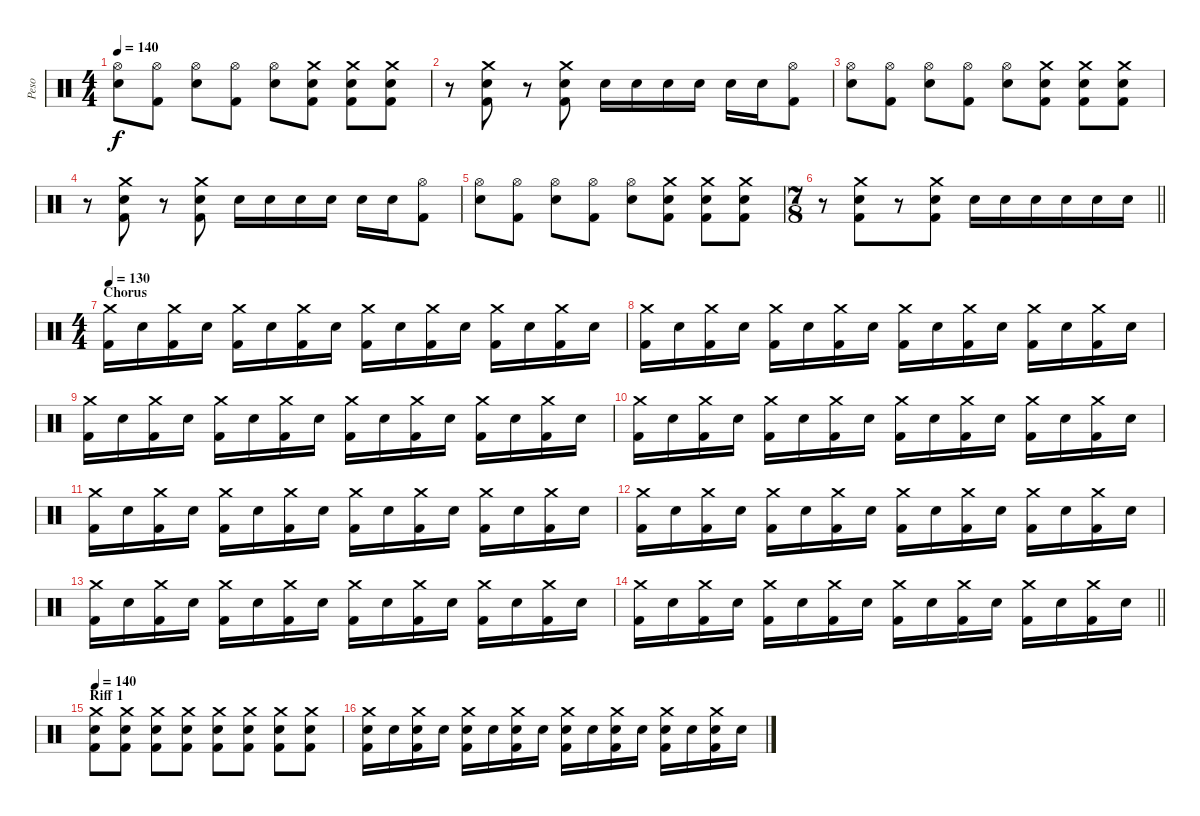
\track ("Peso" "Peso") {instrument percussion}
\staff {score}
\articulation defaults
\ts (4 4)
\tempo 140
\clef neutral
\ks c
("Hi-Hat (open)" "Electric Snare (hit)").8{dy f} ("Hi-Hat (open)" "Kick (hit) 2").8 ("Hi-Hat (open)" "Electric Snare (hit)").8 ("Hi-Hat (open)" "Kick (hit) 2").8 ("Hi-Hat (open)" "Electric Snare (hit)").8 ("Crash medium (hit)" "Electric Snare (hit)" "Kick (hit) 2").8 ("Crash medium (hit)" "Electric Snare (hit)" "Kick (hit) 2").8 ("Crash medium (hit)" "Electric Snare (hit)" "Kick (hit) 2").8 |
r.8 ("Crash medium (hit)" "Electric Snare (hit)" "Kick (hit) 2").8 r.8 ("Crash medium (hit)" "Electric Snare (hit)" "Kick (hit) 2").8 "Electric Snare (hit)".16 "Electric Snare (hit)".16 "Electric Snare (hit)".16 "Electric Snare (hit)".16 "Electric Snare (hit)".16 "Electric Snare (hit)".16 ("Hi-Hat (open)" "Kick (hit) 2").8 |
("Hi-Hat (open)" "Electric Snare (hit)").8 ("Hi-Hat (open)" "Kick (hit) 2").8 ("Hi-Hat (open)" "Electric Snare (hit)").8 ("Hi-Hat (open)" "Kick (hit) 2").8 ("Hi-Hat (open)" "Electric Snare (hit)").8 ("Crash medium (hit)" "Electric Snare (hit)" "Kick (hit) 2").8 ("Crash medium (hit)" "Electric Snare (hit)" "Kick (hit) 2").8 ("Crash medium (hit)" "Electric Snare (hit)" "Kick (hit) 2").8 |
r.8 ("Crash medium (hit)" "Electric Snare (hit)" "Kick (hit) 2").8 r.8 ("Crash medium (hit)" "Electric Snare (hit)" "Kick (hit) 2").8 "Electric Snare (hit)".16 "Electric Snare (hit)".16 "Electric Snare (hit)".16 "Electric Snare (hit)".16 "Electric Snare (hit)".16 "Electric Snare (hit)".16 ("Hi-Hat (open)" "Kick (hit) 2").8 |
("Hi-Hat (open)" "Electric Snare (hit)").8 ("Hi-Hat (open)" "Kick (hit) 2").8 ("Hi-Hat (open)" "Electric Snare (hit)").8 ("Hi-Hat (open)" "Kick (hit) 2").8 ("Hi-Hat (open)" "Electric Snare (hit)").8 ("Crash medium (hit)" "Electric Snare (hit)" "Kick (hit) 2").8 ("Crash medium (hit)" "Electric Snare (hit)" "Kick (hit) 2").8 ("Crash medium (hit)" "Electric Snare (hit)" "Kick (hit) 2").8 |
\ts (7 8)
\barLineRight lightlight
r.8 ("Crash medium (hit)" "Electric Snare (hit)" "Kick (hit) 2").8 r.8 ("Crash medium (hit)" "Electric Snare (hit)" "Kick (hit) 2").8 "Electric Snare (hit)".16 "Electric Snare (hit)".16 "Electric Snare (hit)".16 "Electric Snare (hit)".16 "Electric Snare (hit)".16 "Electric Snare (hit)".16 |
\ts (4 4)
\section ("" "Chorus")
\tempo 130
("Crash medium (hit)" "Kick (hit) 2").16 "Electric Snare (hit)".16 ("Crash medium (hit)" "Kick (hit) 2").16 "Electric Snare (hit)".16 ("Crash medium (hit)" "Kick (hit) 2").16 "Electric Snare (hit)".16 ("Crash medium (hit)" "Kick (hit) 2").16 "Electric Snare (hit)".16 ("Crash medium (hit)" "Kick (hit) 2").16 "Electric Snare (hit)".16 ("Crash medium (hit)" "Kick (hit) 2").16 "Electric Snare (hit)".16 ("Crash medium (hit)" "Kick (hit) 2").16 "Electric Snare (hit)".16 ("Crash medium (hit)" "Kick (hit) 2").16 "Electric Snare (hit)".16 |
("Crash medium (hit)" "Kick (hit) 2").16 "Electric Snare (hit)".16 ("Crash medium (hit)" "Kick (hit) 2").16 "Electric Snare (hit)".16 ("Crash medium (hit)" "Kick (hit) 2").16 "Electric Snare (hit)".16 ("Crash medium (hit)" "Kick (hit) 2").16 "Electric Snare (hit)".16 ("Crash medium (hit)" "Kick (hit) 2").16 "Electric Snare (hit)".16 ("Crash medium (hit)" "Kick (hit) 2").16 "Electric Snare (hit)".16 ("Crash medium (hit)" "Kick (hit) 2").16 "Electric Snare (hit)".16 ("Crash medium (hit)" "Kick (hit) 2").16 "Electric Snare (hit)".16 |
("Crash medium (hit)" "Kick (hit) 2").16 "Electric Snare (hit)".16 ("Crash medium (hit)" "Kick (hit) 2").16 "Electric Snare (hit)".16 ("Crash medium (hit)" "Kick (hit) 2").16 "Electric Snare (hit)".16 ("Crash medium (hit)" "Kick (hit) 2").16 "Electric Snare (hit)".16 ("Crash medium (hit)" "Kick (hit) 2").16 "Electric Snare (hit)".16 ("Crash medium (hit)" "Kick (hit) 2").16 "Electric Snare (hit)".16 ("Crash medium (hit)" "Kick (hit) 2").16 "Electric Snare (hit)".16 ("Crash medium (hit)" "Kick (hit) 2").16 "Electric Snare (hit)".16 |
("Crash medium (hit)" "Kick (hit) 2").16 "Electric Snare (hit)".16 ("Crash medium (hit)" "Kick (hit) 2").16 "Electric Snare (hit)".16 ("Crash medium (hit)" "Kick (hit) 2").16 "Electric Snare (hit)".16 ("Crash medium (hit)" "Kick (hit) 2").16 "Electric Snare (hit)".16 ("Crash medium (hit)" "Kick (hit) 2").16 "Electric Snare (hit)".16 ("Crash medium (hit)" "Kick (hit) 2").16 "Electric Snare (hit)".16 ("Crash medium (hit)" "Kick (hit) 2").16 "Electric Snare (hit)".16 ("Crash medium (hit)" "Kick (hit) 2").16 "Electric Snare (hit)".16 |
("Crash medium (hit)" "Kick (hit) 2").16 "Electric Snare (hit)".16 ("Crash medium (hit)" "Kick (hit) 2").16 "Electric Snare (hit)".16 ("Crash medium (hit)" "Kick (hit) 2").16 "Electric Snare (hit)".16 ("Crash medium (hit)" "Kick (hit) 2").16 "Electric Snare (hit)".16 ("Crash medium (hit)" "Kick (hit) 2").16 "Electric Snare (hit)".16 ("Crash medium (hit)" "Kick (hit) 2").16 "Electric Snare (hit)".16 ("Crash medium (hit)" "Kick (hit) 2").16 "Electric Snare (hit)".16 ("Crash medium (hit)" "Kick (hit) 2").16 "Electric Snare (hit)".16 |
("Crash medium (hit)" "Kick (hit) 2").16 "Electric Snare (hit)".16 ("Crash medium (hit)" "Kick (hit) 2").16 "Electric Snare (hit)".16 ("Crash medium (hit)" "Kick (hit) 2").16 "Electric Snare (hit)".16 ("Crash medium (hit)" "Kick (hit) 2").16 "Electric Snare (hit)".16 ("Crash medium (hit)" "Kick (hit) 2").16 "Electric Snare (hit)".16 ("Crash medium (hit)" "Kick (hit) 2").16 "Electric Snare (hit)".16 ("Crash medium (hit)" "Kick (hit) 2").16 "Electric Snare (hit)".16 ("Crash medium (hit)" "Kick (hit) 2").16 "Electric Snare (hit)".16 |
("Crash medium (hit)" "Kick (hit) 2").16 "Electric Snare (hit)".16 ("Crash medium (hit)" "Kick (hit) 2").16 "Electric Snare (hit)".16 ("Crash medium (hit)" "Kick (hit) 2").16 "Electric Snare (hit)".16 ("Crash medium (hit)" "Kick (hit) 2").16 "Electric Snare (hit)".16 ("Crash medium (hit)" "Kick (hit) 2").16 "Electric Snare (hit)".16 ("Crash medium (hit)" "Kick (hit) 2").16 "Electric Snare (hit)".16 ("Crash medium (hit)" "Kick (hit) 2").16 "Electric Snare (hit)".16 ("Crash medium (hit)" "Kick (hit) 2").16 "Electric Snare (hit)".16 |
\barLineRight lightlight
("Crash medium (hit)" "Kick (hit) 2").16 "Electric Snare (hit)".16 ("Crash medium (hit)" "Kick (hit) 2").16 "Electric Snare (hit)".16 ("Crash medium (hit)" "Kick (hit) 2").16 "Electric Snare (hit)".16 ("Crash medium (hit)" "Kick (hit) 2").16 "Electric Snare (hit)".16 ("Crash medium (hit)" "Kick (hit) 2").16 "Electric Snare (hit)".16 ("Crash medium (hit)" "Kick (hit) 2").16 "Electric Snare (hit)".16 ("Crash medium (hit)" "Kick (hit) 2").16 "Electric Snare (hit)".16 ("Crash medium (hit)" "Kick (hit) 2").16 "Electric Snare (hit)".16 |
\section ("" "Riff 1")
\tempo 140
("Crash medium (hit)" "Electric Snare (hit)" "Kick (hit) 2").8 ("Crash medium (hit)" "Electric Snare (hit)" "Kick (hit) 2").8 ("Crash medium (hit)" "Electric Snare (hit)" "Kick (hit) 2").8 ("Crash medium (hit)" "Electric Snare (hit)" "Kick (hit) 2").8 ("Crash medium (hit)" "Electric Snare (hit)" "Kick (hit) 2").8 ("Crash medium (hit)" "Electric Snare (hit)" "Kick (hit) 2").8 ("Crash medium (hit)" "Electric Snare (hit)" "Kick (hit) 2").8 ("Crash medium (hit)" "Electric Snare (hit)" "Kick (hit) 2").8 |
("Crash medium (hit)" "Electric Snare (hit)" "Kick (hit) 2").16 "Electric Snare (hit)".16 ("Crash medium (hit)" "Electric Snare (hit)" "Kick (hit) 2").16 "Electric Snare (hit)".16 ("Crash medium (hit)" "Electric Snare (hit)" "Kick (hit) 2").16 "Electric Snare (hit)".16 ("Crash medium (hit)" "Electric Snare (hit)" "Kick (hit) 2").16 "Electric Snare (hit)".16 ("Crash medium (hit)" "Electric Snare (hit)" "Kick (hit) 2").16 "Electric Snare (hit)".16 ("Crash medium (hit)" "Electric Snare (hit)" "Kick (hit) 2").16 "Electric Snare (hit)".16 ("Crash medium (hit)" "Electric Snare (hit)" "Kick (hit) 2").16 "Electric Snare (hit)".16 ("Crash medium (hit)" "Electric Snare (hit)" "Kick (hit) 2").16 "Electric Snare (hit)".16
